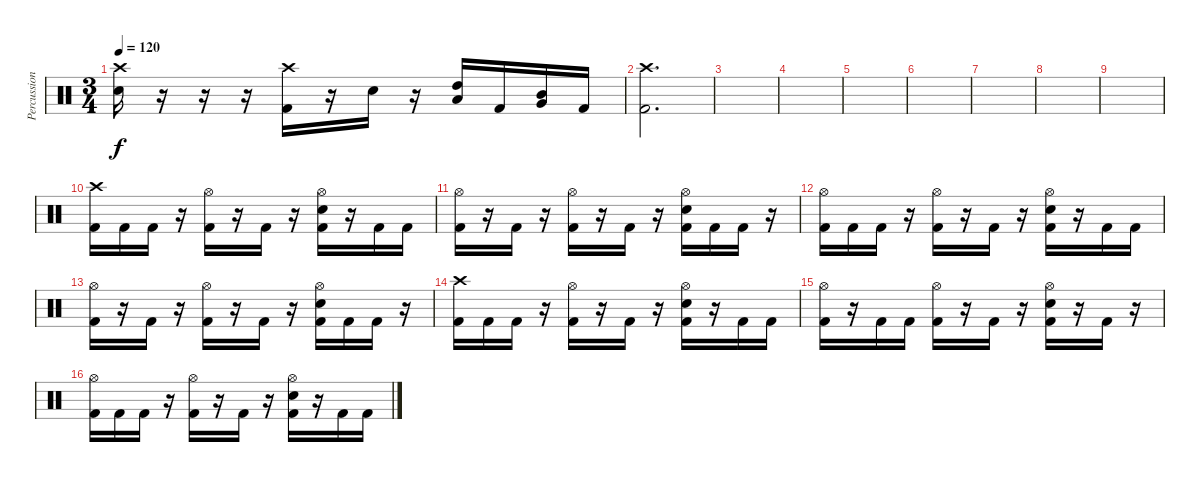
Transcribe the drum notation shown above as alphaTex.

\track ("Percussion" "Percussion") {instrument percussion}
\staff {score}
\articulation defaults
\ts (3 4)
\tempo 120
\clef neutral
\ks c
("Electric Snare (hit)" "Crash high (hit)").16{dy f} r.16 r.16 r.16 ("Kick (hit) 2" "Crash high (hit)").16 r.16 "Electric Snare (hit)".16 r.16 ("High Tom (hit)" "Low Tom (hit)").16 "Kick (hit) 2".16 ("Mid Tom (hit)" "Very Low Tom (hit)").16 "Kick (hit) 2".16 |
("Kick (hit) 2" "Crash high (hit)").2{d} |
|
|
|
|
|
|
|
("Kick (hit) 2" "Crash high (hit)").16 "Kick (hit) 2".16 "Kick (hit) 2".16 r.16 ("Kick (hit) 2" "Hi-Hat (open)").16 r.16 "Kick (hit) 2".16 r.16 ("Kick (hit) 2" "Electric Snare (hit)" "Hi-Hat (open)").16 r.16 "Kick (hit) 2".16 "Kick (hit) 2".16 |
("Kick (hit) 2" "Hi-Hat (open)").16 r.16 "Kick (hit) 2".16 r.16 ("Kick (hit) 2" "Hi-Hat (open)").16 r.16 "Kick (hit) 2".16 r.16 ("Kick (hit) 2" "Electric Snare (hit)" "Hi-Hat (open)").16 "Kick (hit) 2".16 "Kick (hit) 2".16 r.16 |
("Kick (hit) 2" "Hi-Hat (open)").16 "Kick (hit) 2".16 "Kick (hit) 2".16 r.16 ("Kick (hit) 2" "Hi-Hat (open)").16 r.16 "Kick (hit) 2".16 r.16 ("Kick (hit) 2" "Electric Snare (hit)" "Hi-Hat (open)").16 r.16 "Kick (hit) 2".16 "Kick (hit) 2".16 |
("Kick (hit) 2" "Hi-Hat (open)").16 r.16 "Kick (hit) 2".16 r.16 ("Kick (hit) 2" "Hi-Hat (open)").16 r.16 "Kick (hit) 2".16 r.16 ("Kick (hit) 2" "Electric Snare (hit)" "Hi-Hat (open)").16 "Kick (hit) 2".16 "Kick (hit) 2".16 r.16 |
("Kick (hit) 2" "Crash high (hit)").16 "Kick (hit) 2".16 "Kick (hit) 2".16 r.16 ("Kick (hit) 2" "Hi-Hat (open)").16 r.16 "Kick (hit) 2".16 r.16 ("Kick (hit) 2" "Electric Snare (hit)" "Hi-Hat (open)").16 r.16 "Kick (hit) 2".16 "Kick (hit) 2".16 |
("Kick (hit) 2" "Hi-Hat (open)").16 r.16 "Kick (hit) 2".16 "Kick (hit) 2".16 ("Kick (hit) 2" "Hi-Hat (open)").16 r.16 "Kick (hit) 2".16 r.16 ("Kick (hit) 2" "Electric Snare (hit)" "Hi-Hat (open)").16 r.16 "Kick (hit) 2".16 r.16 |
("Kick (hit) 2" "Hi-Hat (open)").16 "Kick (hit) 2".16 "Kick (hit) 2".16 r.16 ("Kick (hit) 2" "Hi-Hat (open)").16 r.16 "Kick (hit) 2".16 r.16 ("Kick (hit) 2" "Electric Snare (hit)" "Hi-Hat (open)").16 r.16 "Kick (hit) 2".16 "Kick (hit) 2".16
